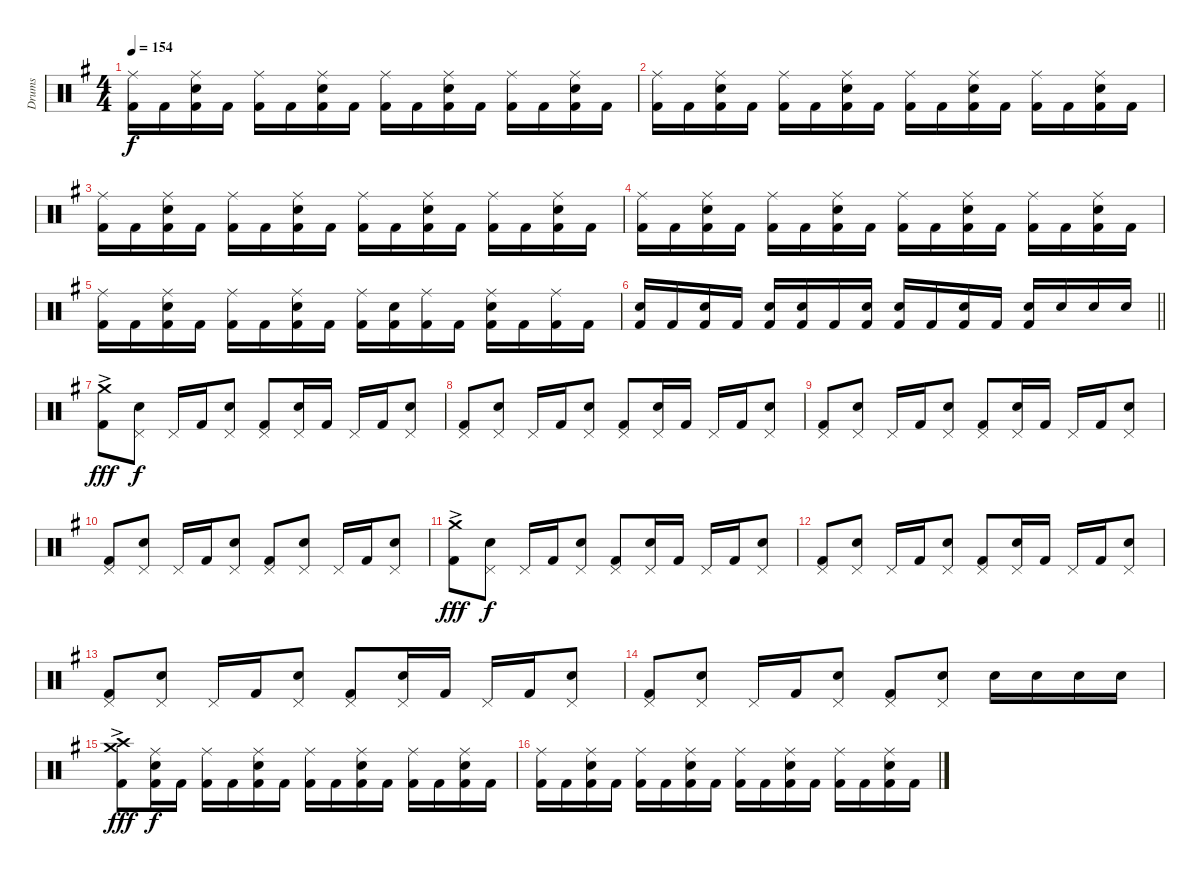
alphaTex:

\track ("Drums" "Drums") {instrument percussion}
\staff {score}
\articulation defaults
\ts (4 4)
\tempo 154
\clef neutral
\ks g
("Ride (middle)" "Kick (hit) 2").16{dy f} "Kick (hit) 2".16 ("Ride (middle)" "Snare (hit) 2" "Kick (hit) 2").16 "Kick (hit) 2".16 ("Ride (middle)" "Kick (hit) 2").16 "Kick (hit) 2".16 ("Ride (middle)" "Snare (hit) 2" "Kick (hit) 2").16 "Kick (hit) 2".16 ("Ride (middle)" "Kick (hit) 2").16 "Kick (hit) 2".16 ("Ride (middle)" "Snare (hit) 2" "Kick (hit) 2").16 "Kick (hit) 2".16 ("Ride (middle)" "Kick (hit) 2").16 "Kick (hit) 2".16 ("Ride (middle)" "Snare (hit) 2" "Kick (hit) 2").16 "Kick (hit) 2".16 |
("Ride (middle)" "Kick (hit) 2").16 "Kick (hit) 2".16 ("Ride (middle)" "Snare (hit) 2" "Kick (hit) 2").16 "Kick (hit) 2".16 ("Ride (middle)" "Kick (hit) 2").16 "Kick (hit) 2".16 ("Ride (middle)" "Snare (hit) 2" "Kick (hit) 2").16 "Kick (hit) 2".16 ("Ride (middle)" "Kick (hit) 2").16 "Kick (hit) 2".16 ("Ride (middle)" "Snare (hit) 2" "Kick (hit) 2").16 "Kick (hit) 2".16 ("Ride (middle)" "Kick (hit) 2").16 "Kick (hit) 2".16 ("Ride (middle)" "Snare (hit) 2" "Kick (hit) 2").16 "Kick (hit) 2".16 |
("Ride (middle)" "Kick (hit) 2").16 "Kick (hit) 2".16 ("Ride (middle)" "Snare (hit) 2" "Kick (hit) 2").16 "Kick (hit) 2".16 ("Ride (middle)" "Kick (hit) 2").16 "Kick (hit) 2".16 ("Ride (middle)" "Snare (hit) 2" "Kick (hit) 2").16 "Kick (hit) 2".16 ("Ride (middle)" "Kick (hit) 2").16 "Kick (hit) 2".16 ("Ride (middle)" "Snare (hit) 2" "Kick (hit) 2").16 "Kick (hit) 2".16 ("Ride (middle)" "Kick (hit) 2").16 "Kick (hit) 2".16 ("Ride (middle)" "Snare (hit) 2" "Kick (hit) 2").16 "Kick (hit) 2".16 |
("Ride (middle)" "Kick (hit) 2").16 "Kick (hit) 2".16 ("Ride (middle)" "Snare (hit) 2" "Kick (hit) 2").16 "Kick (hit) 2".16 ("Ride (middle)" "Kick (hit) 2").16 "Kick (hit) 2".16 ("Ride (middle)" "Snare (hit) 2" "Kick (hit) 2").16 "Kick (hit) 2".16 ("Ride (middle)" "Kick (hit) 2").16 "Kick (hit) 2".16 ("Ride (middle)" "Snare (hit) 2" "Kick (hit) 2").16 "Kick (hit) 2".16 ("Ride (middle)" "Kick (hit) 2").16 "Kick (hit) 2".16 ("Ride (middle)" "Snare (hit) 2" "Kick (hit) 2").16 "Kick (hit) 2".16 |
("Ride (middle)" "Kick (hit) 2").16 "Kick (hit) 2".16 ("Ride (middle)" "Snare (hit) 2" "Kick (hit) 2").16 "Kick (hit) 2".16 ("Ride (middle)" "Kick (hit) 2").16 "Kick (hit) 2".16 ("Ride (middle)" "Snare (hit) 2" "Kick (hit) 2").16 "Kick (hit) 2".16 ("Ride (middle)" "Kick (hit) 2").16 ("Snare (hit) 2" "Kick (hit) 2").16 ("Ride (middle)" "Kick (hit) 2").16 "Kick (hit) 2".16 ("Ride (middle)" "Snare (hit) 2" "Kick (hit) 2").16 "Kick (hit) 2".16 ("Ride (middle)" "Kick (hit) 2").16 "Kick (hit) 2".16 |
\barLineRight lightlight
("Snare (hit) 2" "Kick (hit) 2").16 "Kick (hit) 2".16 ("Snare (hit) 2" "Kick (hit) 2").16 "Kick (hit) 2".16 ("Snare (hit) 2" "Kick (hit) 2").16 ("Snare (hit) 2" "Kick (hit) 2").16 "Kick (hit) 2".16 ("Snare (hit) 2" "Kick (hit) 2").16 ("Snare (hit) 2" "Kick (hit) 2").16 "Kick (hit) 2".16 ("Snare (hit) 2" "Kick (hit) 2").16 "Kick (hit) 2".16 ("Snare (hit) 2" "Kick (hit) 2").16 "Snare (hit) 2".16 "Snare (hit) 2".16 "Snare (hit) 2".16 |
("Crash medium (hit)"{ac} "Kick (hit) 2"{ac}).8{dy fff} ("Pedal Hi-Hat (hit)" "Snare (hit) 2").8{dy f} "Pedal Hi-Hat (hit)".16 "Kick (hit) 2".16 ("Pedal Hi-Hat (hit)" "Snare (hit) 2").8 ("Pedal Hi-Hat (hit)" "Kick (hit) 2").8 ("Pedal Hi-Hat (hit)" "Snare (hit) 2").16 "Kick (hit) 2".16 "Pedal Hi-Hat (hit)".16 "Kick (hit) 2".16 ("Pedal Hi-Hat (hit)" "Snare (hit) 2").8 |
("Pedal Hi-Hat (hit)" "Kick (hit) 2").8 ("Pedal Hi-Hat (hit)" "Snare (hit) 2").8 "Pedal Hi-Hat (hit)".16 "Kick (hit) 2".16 ("Pedal Hi-Hat (hit)" "Snare (hit) 2").8 ("Pedal Hi-Hat (hit)" "Kick (hit) 2").8 ("Pedal Hi-Hat (hit)" "Snare (hit) 2").16 "Kick (hit) 2".16 "Pedal Hi-Hat (hit)".16 "Kick (hit) 2".16 ("Pedal Hi-Hat (hit)" "Snare (hit) 2").8 |
("Pedal Hi-Hat (hit)" "Kick (hit) 2").8 ("Pedal Hi-Hat (hit)" "Snare (hit) 2").8 "Pedal Hi-Hat (hit)".16 "Kick (hit) 2".16 ("Pedal Hi-Hat (hit)" "Snare (hit) 2").8 ("Pedal Hi-Hat (hit)" "Kick (hit) 2").8 ("Pedal Hi-Hat (hit)" "Snare (hit) 2").16 "Kick (hit) 2".16 "Pedal Hi-Hat (hit)".16 "Kick (hit) 2".16 ("Pedal Hi-Hat (hit)" "Snare (hit) 2").8 |
("Pedal Hi-Hat (hit)" "Kick (hit) 2").8 ("Pedal Hi-Hat (hit)" "Snare (hit) 2").8 "Pedal Hi-Hat (hit)".16 "Kick (hit) 2".16 ("Pedal Hi-Hat (hit)" "Snare (hit) 2").8 ("Pedal Hi-Hat (hit)" "Kick (hit) 2").8 ("Pedal Hi-Hat (hit)" "Snare (hit) 2").8 "Pedal Hi-Hat (hit)".16 "Kick (hit) 2".16 ("Pedal Hi-Hat (hit)" "Snare (hit) 2").8 |
("Crash medium (hit)"{ac} "Kick (hit) 2"{ac}).8{dy fff} ("Pedal Hi-Hat (hit)" "Snare (hit) 2").8{dy f} "Pedal Hi-Hat (hit)".16 "Kick (hit) 2".16 ("Pedal Hi-Hat (hit)" "Snare (hit) 2").8 ("Pedal Hi-Hat (hit)" "Kick (hit) 2").8 ("Pedal Hi-Hat (hit)" "Snare (hit) 2").16 "Kick (hit) 2".16 "Pedal Hi-Hat (hit)".16 "Kick (hit) 2".16 ("Pedal Hi-Hat (hit)" "Snare (hit) 2").8 |
("Pedal Hi-Hat (hit)" "Kick (hit) 2").8 ("Pedal Hi-Hat (hit)" "Snare (hit) 2").8 "Pedal Hi-Hat (hit)".16 "Kick (hit) 2".16 ("Pedal Hi-Hat (hit)" "Snare (hit) 2").8 ("Pedal Hi-Hat (hit)" "Kick (hit) 2").8 ("Pedal Hi-Hat (hit)" "Snare (hit) 2").16 "Kick (hit) 2".16 "Pedal Hi-Hat (hit)".16 "Kick (hit) 2".16 ("Pedal Hi-Hat (hit)" "Snare (hit) 2").8 |
("Pedal Hi-Hat (hit)" "Kick (hit) 2").8 ("Pedal Hi-Hat (hit)" "Snare (hit) 2").8 "Pedal Hi-Hat (hit)".16 "Kick (hit) 2".16 ("Pedal Hi-Hat (hit)" "Snare (hit) 2").8 ("Pedal Hi-Hat (hit)" "Kick (hit) 2").8 ("Pedal Hi-Hat (hit)" "Snare (hit) 2").16 "Kick (hit) 2".16 "Pedal Hi-Hat (hit)".16 "Kick (hit) 2".16 ("Pedal Hi-Hat (hit)" "Snare (hit) 2").8 |
("Pedal Hi-Hat (hit)" "Kick (hit) 2").8 ("Pedal Hi-Hat (hit)" "Snare (hit) 2").8 "Pedal Hi-Hat (hit)".16 "Kick (hit) 2".16 ("Pedal Hi-Hat (hit)" "Snare (hit) 2").8 ("Pedal Hi-Hat (hit)" "Kick (hit) 2").8 ("Pedal Hi-Hat (hit)" "Snare (hit) 2").8 "Snare (hit) 2".16 "Snare (hit) 2".16 "Snare (hit) 2".16 "Snare (hit) 2".16 |
("Crash medium (hit)"{ac} "Crash high (hit)"{ac} "Kick (hit) 2"{ac}).8{dy fff} ("Ride (middle)" "Snare (hit) 2" "Kick (hit) 2").16{dy f} "Kick (hit) 2".16 ("Ride (middle)" "Kick (hit) 2").16 "Kick (hit) 2".16 ("Ride (middle)" "Snare (hit) 2" "Kick (hit) 2").16 "Kick (hit) 2".16 ("Ride (middle)" "Kick (hit) 2").16 "Kick (hit) 2".16 ("Ride (middle)" "Snare (hit) 2" "Kick (hit) 2").16 "Kick (hit) 2".16 ("Ride (middle)" "Kick (hit) 2").16 "Kick (hit) 2".16 ("Ride (middle)" "Snare (hit) 2" "Kick (hit) 2").16 "Kick (hit) 2".16 |
("Ride (middle)" "Kick (hit) 2").16 "Kick (hit) 2".16 ("Ride (middle)" "Snare (hit) 2" "Kick (hit) 2").16 "Kick (hit) 2".16 ("Ride (middle)" "Kick (hit) 2").16 "Kick (hit) 2".16 ("Ride (middle)" "Snare (hit) 2" "Kick (hit) 2").16 "Kick (hit) 2".16 ("Ride (middle)" "Kick (hit) 2").16 "Kick (hit) 2".16 ("Ride (middle)" "Snare (hit) 2" "Kick (hit) 2").16 "Kick (hit) 2".16 ("Ride (middle)" "Kick (hit) 2").16 "Kick (hit) 2".16 ("Ride (middle)" "Snare (hit) 2" "Kick (hit) 2").16 "Kick (hit) 2".16
